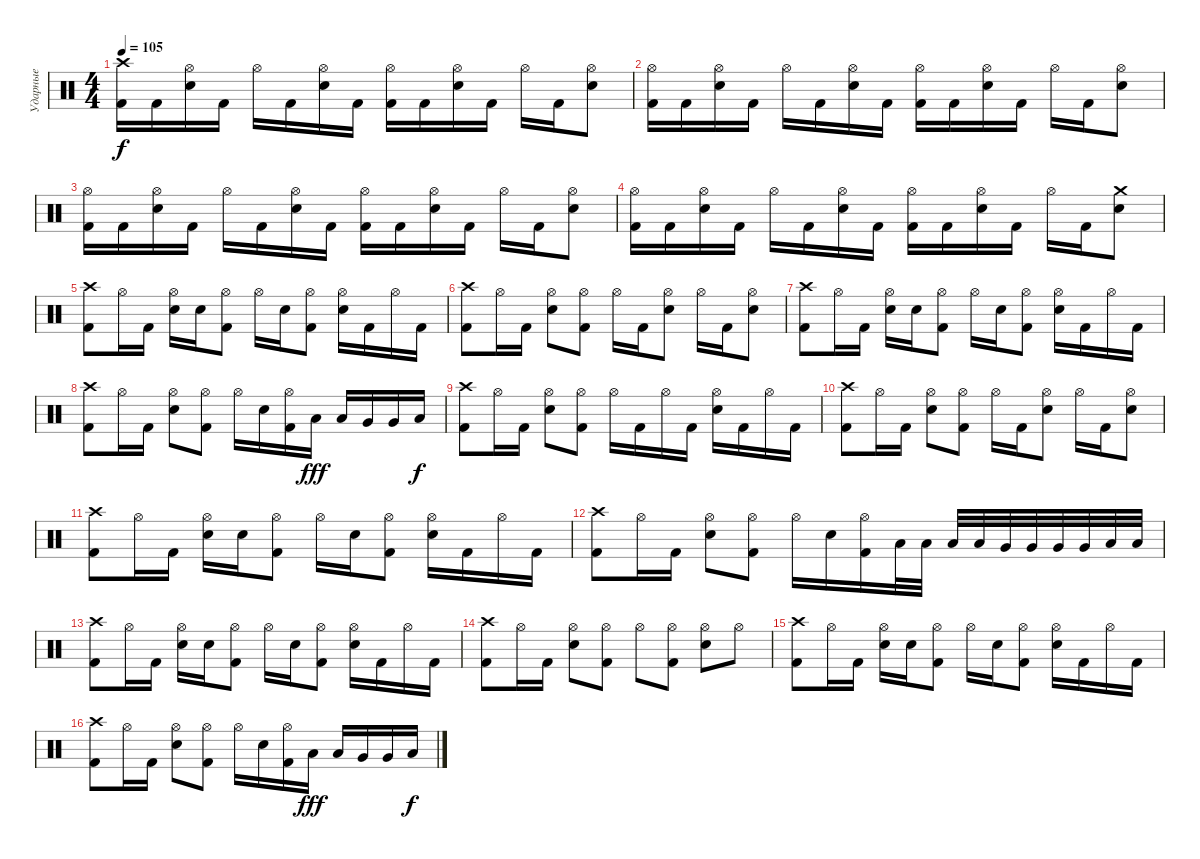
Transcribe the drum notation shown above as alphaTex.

\track ("Ударные" "Ударные") {instrument percussion}
\staff {score}
\articulation defaults
\ts (4 4)
\tempo 105
\clef neutral
\ks c
("Crash high (hit)" "Kick (hit) 2").16{dy f} "Kick (hit) 2".16 ("Hi-Hat (open)" "Electric Snare (hit)").16 "Kick (hit) 2".16 "Hi-Hat (open)".16 "Kick (hit) 2".16 ("Hi-Hat (open)" "Electric Snare (hit)").16 "Kick (hit) 2".16 ("Hi-Hat (open)" "Kick (hit) 2").16 "Kick (hit) 2".16 ("Hi-Hat (open)" "Electric Snare (hit)").16 "Kick (hit) 2".16 "Hi-Hat (open)".16 "Kick (hit) 2".16 ("Hi-Hat (open)" "Electric Snare (hit)").8 |
("Hi-Hat (open)" "Kick (hit) 2").16 "Kick (hit) 2".16 ("Hi-Hat (open)" "Electric Snare (hit)").16 "Kick (hit) 2".16 "Hi-Hat (open)".16 "Kick (hit) 2".16 ("Hi-Hat (open)" "Electric Snare (hit)").16 "Kick (hit) 2".16 ("Hi-Hat (open)" "Kick (hit) 2").16 "Kick (hit) 2".16 ("Hi-Hat (open)" "Electric Snare (hit)").16 "Kick (hit) 2".16 "Hi-Hat (open)".16 "Kick (hit) 2".16 ("Hi-Hat (open)" "Electric Snare (hit)").8 |
("Hi-Hat (open)" "Kick (hit) 2").16 "Kick (hit) 2".16 ("Hi-Hat (open)" "Electric Snare (hit)").16 "Kick (hit) 2".16 "Hi-Hat (open)".16 "Kick (hit) 2".16 ("Hi-Hat (open)" "Electric Snare (hit)").16 "Kick (hit) 2".16 ("Hi-Hat (open)" "Kick (hit) 2").16 "Kick (hit) 2".16 ("Hi-Hat (open)" "Electric Snare (hit)").16 "Kick (hit) 2".16 "Hi-Hat (open)".16 "Kick (hit) 2".16 ("Hi-Hat (open)" "Electric Snare (hit)").8 |
("Hi-Hat (open)" "Kick (hit) 2").16 "Kick (hit) 2".16 ("Hi-Hat (open)" "Electric Snare (hit)").16 "Kick (hit) 2".16 "Hi-Hat (open)".16 "Kick (hit) 2".16 ("Hi-Hat (open)" "Electric Snare (hit)").16 "Kick (hit) 2".16 ("Hi-Hat (open)" "Kick (hit) 2").16 "Kick (hit) 2".16 ("Hi-Hat (open)" "Electric Snare (hit)").16 "Kick (hit) 2".16 "Hi-Hat (open)".16 "Kick (hit) 2".16 ("Crash medium (hit)" "Electric Snare (hit)").8 |
("Crash high (hit)" "Kick (hit) 2").8 "Hi-Hat (open)".16 "Kick (hit) 2".16 ("Hi-Hat (open)" "Electric Snare (hit)").16 "Electric Snare (hit)".16 ("Hi-Hat (open)" "Kick (hit) 2").8 "Hi-Hat (open)".16 "Electric Snare (hit)".16 ("Hi-Hat (open)" "Kick (hit) 2").8 ("Hi-Hat (open)" "Electric Snare (hit)").16 "Kick (hit) 2".16 "Hi-Hat (open)".16 "Kick (hit) 2".16 |
("Crash high (hit)" "Kick (hit) 2").8 "Hi-Hat (open)".16 "Kick (hit) 2".16 ("Hi-Hat (open)" "Electric Snare (hit)").8 ("Hi-Hat (open)" "Kick (hit) 2").8 "Hi-Hat (open)".16 "Kick (hit) 2".16 ("Hi-Hat (open)" "Electric Snare (hit)").8 "Hi-Hat (open)".16 "Kick (hit) 2".16 ("Hi-Hat (open)" "Electric Snare (hit)").8 |
("Crash high (hit)" "Kick (hit) 2").8 "Hi-Hat (open)".16 "Kick (hit) 2".16 ("Hi-Hat (open)" "Electric Snare (hit)").16 "Electric Snare (hit)".16 ("Hi-Hat (open)" "Kick (hit) 2").8 "Hi-Hat (open)".16 "Electric Snare (hit)".16 ("Hi-Hat (open)" "Kick (hit) 2").8 ("Hi-Hat (open)" "Electric Snare (hit)").16 "Kick (hit) 2".16 "Hi-Hat (open)".16 "Kick (hit) 2".16 |
("Crash high (hit)" "Kick (hit) 2").8 "Hi-Hat (open)".16 "Kick (hit) 2".16 ("Hi-Hat (open)" "Electric Snare (hit)").8 ("Hi-Hat (open)" "Kick (hit) 2").8 "Hi-Hat (open)".16 "Electric Snare (hit)".16 ("Hi-Hat (open)" "Kick (hit) 2").16 "Low Tom (hit)".16{dy fff} "Low Tom (hit)".16 "Very Low Tom (hit)".16 "Very Low Tom (hit)".16 "Low Floor Tom (hit)".16{dy f} |
("Crash high (hit)" "Kick (hit) 2").8 "Hi-Hat (open)".16 "Kick (hit) 2".16 ("Hi-Hat (open)" "Electric Snare (hit)").8 ("Hi-Hat (open)" "Kick (hit) 2").8 "Hi-Hat (open)".16 "Kick (hit) 2".16 "Hi-Hat (open)".16 "Kick (hit) 2".16 ("Hi-Hat (open)" "Electric Snare (hit)").16 "Kick (hit) 2".16 "Hi-Hat (open)".16 "Kick (hit) 2".16 |
("Crash high (hit)" "Kick (hit) 2").8 "Hi-Hat (open)".16 "Kick (hit) 2".16 ("Hi-Hat (open)" "Electric Snare (hit)").8 ("Hi-Hat (open)" "Kick (hit) 2").8 "Hi-Hat (open)".16 "Kick (hit) 2".16 ("Hi-Hat (open)" "Electric Snare (hit)").8 "Hi-Hat (open)".16 "Kick (hit) 2".16 ("Hi-Hat (open)" "Electric Snare (hit)").8 |
("Crash high (hit)" "Kick (hit) 2").8 "Hi-Hat (open)".16 "Kick (hit) 2".16 ("Hi-Hat (open)" "Electric Snare (hit)").16 "Electric Snare (hit)".16 ("Hi-Hat (open)" "Kick (hit) 2").8 "Hi-Hat (open)".16 "Electric Snare (hit)".16 ("Hi-Hat (open)" "Kick (hit) 2").8 ("Hi-Hat (open)" "Electric Snare (hit)").16 "Kick (hit) 2".16 "Hi-Hat (open)".16 "Kick (hit) 2".16 |
("Crash high (hit)" "Kick (hit) 2").8 "Hi-Hat (open)".16 "Kick (hit) 2".16 ("Hi-Hat (open)" "Electric Snare (hit)").8 ("Hi-Hat (open)" "Kick (hit) 2").8 "Hi-Hat (open)".16 "Electric Snare (hit)".16 ("Hi-Hat (open)" "Kick (hit) 2").16 "Low Tom (hit)".32 "Low Tom (hit)".32 "Low Tom (hit)".32 "Low Tom (hit)".32 "Very Low Tom (hit)".32 "Very Low Tom (hit)".32 "Very Low Tom (hit)".32 "Very Low Tom (hit)".32 "Low Floor Tom (hit)".32 "Low Floor Tom (hit)".32 |
("Crash high (hit)" "Kick (hit) 2").8 "Hi-Hat (open)".16 "Kick (hit) 2".16 ("Hi-Hat (open)" "Electric Snare (hit)").16 "Electric Snare (hit)".16 ("Hi-Hat (open)" "Kick (hit) 2").8 "Hi-Hat (open)".16 "Electric Snare (hit)".16 ("Hi-Hat (open)" "Kick (hit) 2").8 ("Hi-Hat (open)" "Electric Snare (hit)").16 "Kick (hit) 2".16 "Hi-Hat (open)".16 "Kick (hit) 2".16 |
("Crash high (hit)" "Kick (hit) 2").8 "Hi-Hat (open)".16 "Kick (hit) 2".16 ("Hi-Hat (open)" "Electric Snare (hit)").8 ("Hi-Hat (open)" "Kick (hit) 2").8 "Hi-Hat (open)".8 ("Hi-Hat (open)" "Kick (hit) 2").8 ("Hi-Hat (open)" "Electric Snare (hit)").8 "Hi-Hat (open)".8 |
("Crash high (hit)" "Kick (hit) 2").8 "Hi-Hat (open)".16 "Kick (hit) 2".16 ("Hi-Hat (open)" "Electric Snare (hit)").16 "Electric Snare (hit)".16 ("Hi-Hat (open)" "Kick (hit) 2").8 "Hi-Hat (open)".16 "Electric Snare (hit)".16 ("Hi-Hat (open)" "Kick (hit) 2").8 ("Hi-Hat (open)" "Electric Snare (hit)").16 "Kick (hit) 2".16 "Hi-Hat (open)".16 "Kick (hit) 2".16 |
("Crash high (hit)" "Kick (hit) 2").8 "Hi-Hat (open)".16 "Kick (hit) 2".16 ("Hi-Hat (open)" "Electric Snare (hit)").8 ("Hi-Hat (open)" "Kick (hit) 2").8 "Hi-Hat (open)".16 "Electric Snare (hit)".16 ("Hi-Hat (open)" "Kick (hit) 2").16 "Low Tom (hit)".16{dy fff} "Low Tom (hit)".16 "Very Low Tom (hit)".16 "Very Low Tom (hit)".16 "Low Floor Tom (hit)".16{dy f}
